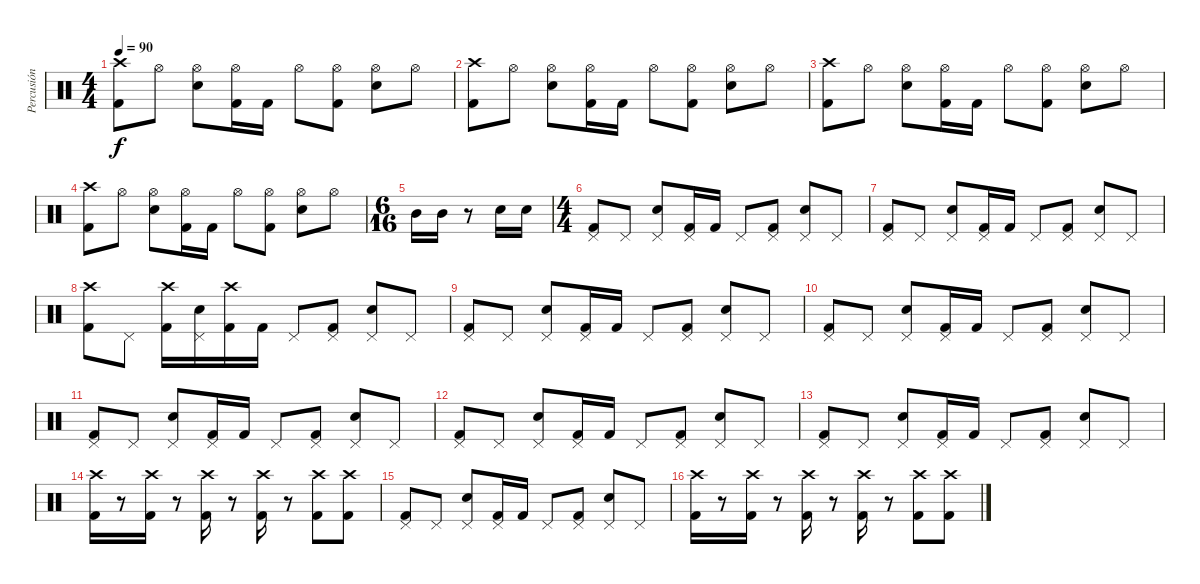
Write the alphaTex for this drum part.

\track ("Percusión" "Percusión") {instrument percussion}
\staff {score}
\articulation defaults
\ts (4 4)
\tempo 90
\clef neutral
\ks c
("Crash high (hit)" "Kick (hit) 2").8{dy f} "Hi-Hat (open)".8 ("Hi-Hat (open)" "Electric Snare (hit)").8 ("Hi-Hat (open)" "Kick (hit) 2").16 "Kick (hit) 2".16 "Hi-Hat (open)".8 ("Hi-Hat (open)" "Kick (hit) 2").8 ("Hi-Hat (open)" "Electric Snare (hit)").8 "Hi-Hat (open)".8 |
("Crash high (hit)" "Kick (hit) 2").8 "Hi-Hat (open)".8 ("Hi-Hat (open)" "Electric Snare (hit)").8 ("Hi-Hat (open)" "Kick (hit) 2").16 "Kick (hit) 2".16 "Hi-Hat (open)".8 ("Hi-Hat (open)" "Kick (hit) 2").8 ("Hi-Hat (open)" "Electric Snare (hit)").8 "Hi-Hat (open)".8 |
("Crash high (hit)" "Kick (hit) 2").8 "Hi-Hat (open)".8 ("Hi-Hat (open)" "Electric Snare (hit)").8 ("Hi-Hat (open)" "Kick (hit) 2").16 "Kick (hit) 2".16 "Hi-Hat (open)".8 ("Hi-Hat (open)" "Kick (hit) 2").8 ("Hi-Hat (open)" "Electric Snare (hit)").8 "Hi-Hat (open)".8 |
("Crash high (hit)" "Kick (hit) 2").8 "Hi-Hat (open)".8 ("Hi-Hat (open)" "Electric Snare (hit)").8 ("Hi-Hat (open)" "Kick (hit) 2").16 "Kick (hit) 2".16 "Hi-Hat (open)".8 ("Hi-Hat (open)" "Kick (hit) 2").8 ("Hi-Hat (open)" "Electric Snare (hit)").8 "Hi-Hat (open)".8 |
\ts (6 16)
"Mid Tom (hit)".16 "Mid Tom (hit)".16 r.8 "Electric Snare (hit)".16 "Electric Snare (hit)".16 |
\ts (4 4)
("Pedal Hi-Hat (hit)" "Kick (hit) 2").8 "Pedal Hi-Hat (hit)".8 ("Pedal Hi-Hat (hit)" "Electric Snare (hit)").8 ("Pedal Hi-Hat (hit)" "Kick (hit) 2").16 "Kick (hit) 2".16 "Pedal Hi-Hat (hit)".8 ("Pedal Hi-Hat (hit)" "Kick (hit) 2").8 ("Pedal Hi-Hat (hit)" "Electric Snare (hit)").8 "Pedal Hi-Hat (hit)".8 |
("Pedal Hi-Hat (hit)" "Kick (hit) 2").8 "Pedal Hi-Hat (hit)".8 ("Pedal Hi-Hat (hit)" "Electric Snare (hit)").8 ("Pedal Hi-Hat (hit)" "Kick (hit) 2").16 "Kick (hit) 2".16 "Pedal Hi-Hat (hit)".8 ("Pedal Hi-Hat (hit)" "Kick (hit) 2").8 ("Pedal Hi-Hat (hit)" "Electric Snare (hit)").8 "Pedal Hi-Hat (hit)".8 |
("Crash high (hit)" "Kick (hit) 2").8 "Pedal Hi-Hat (hit)".8 ("Crash high (hit)" "Kick (hit) 2").16 ("Pedal Hi-Hat (hit)" "Electric Snare (hit)").16 ("Crash high (hit)" "Kick (hit) 2").16 "Kick (hit) 2".16 "Pedal Hi-Hat (hit)".8 ("Pedal Hi-Hat (hit)" "Kick (hit) 2").8 ("Pedal Hi-Hat (hit)" "Electric Snare (hit)").8 "Pedal Hi-Hat (hit)".8 |
("Pedal Hi-Hat (hit)" "Kick (hit) 2").8 "Pedal Hi-Hat (hit)".8 ("Pedal Hi-Hat (hit)" "Electric Snare (hit)").8 ("Pedal Hi-Hat (hit)" "Kick (hit) 2").16 "Kick (hit) 2".16 "Pedal Hi-Hat (hit)".8 ("Pedal Hi-Hat (hit)" "Kick (hit) 2").8 ("Pedal Hi-Hat (hit)" "Electric Snare (hit)").8 "Pedal Hi-Hat (hit)".8 |
("Pedal Hi-Hat (hit)" "Kick (hit) 2").8 "Pedal Hi-Hat (hit)".8 ("Pedal Hi-Hat (hit)" "Electric Snare (hit)").8 ("Pedal Hi-Hat (hit)" "Kick (hit) 2").16 "Kick (hit) 2".16 "Pedal Hi-Hat (hit)".8 ("Pedal Hi-Hat (hit)" "Kick (hit) 2").8 ("Pedal Hi-Hat (hit)" "Electric Snare (hit)").8 "Pedal Hi-Hat (hit)".8 |
("Pedal Hi-Hat (hit)" "Kick (hit) 2").8 "Pedal Hi-Hat (hit)".8 ("Pedal Hi-Hat (hit)" "Electric Snare (hit)").8 ("Pedal Hi-Hat (hit)" "Kick (hit) 2").16 "Kick (hit) 2".16 "Pedal Hi-Hat (hit)".8 ("Pedal Hi-Hat (hit)" "Kick (hit) 2").8 ("Pedal Hi-Hat (hit)" "Electric Snare (hit)").8 "Pedal Hi-Hat (hit)".8 |
("Pedal Hi-Hat (hit)" "Kick (hit) 2").8 "Pedal Hi-Hat (hit)".8 ("Pedal Hi-Hat (hit)" "Electric Snare (hit)").8 ("Pedal Hi-Hat (hit)" "Kick (hit) 2").16 "Kick (hit) 2".16 "Pedal Hi-Hat (hit)".8 ("Pedal Hi-Hat (hit)" "Kick (hit) 2").8 ("Pedal Hi-Hat (hit)" "Electric Snare (hit)").8 "Pedal Hi-Hat (hit)".8 |
("Pedal Hi-Hat (hit)" "Kick (hit) 2").8 "Pedal Hi-Hat (hit)".8 ("Pedal Hi-Hat (hit)" "Electric Snare (hit)").8 ("Pedal Hi-Hat (hit)" "Kick (hit) 2").16 "Kick (hit) 2".16 "Pedal Hi-Hat (hit)".8 ("Pedal Hi-Hat (hit)" "Kick (hit) 2").8 ("Pedal Hi-Hat (hit)" "Electric Snare (hit)").8 "Pedal Hi-Hat (hit)".8 |
("Crash high (hit)" "Kick (hit) 2").16 r.8 ("Crash high (hit)" "Kick (hit) 2").16 r.8 ("Crash high (hit)" "Kick (hit) 2").16 r.8 ("Crash high (hit)" "Kick (hit) 2").16 r.8 ("Crash high (hit)" "Kick (hit) 2").8 ("Crash high (hit)" "Kick (hit) 2").8 |
("Pedal Hi-Hat (hit)" "Kick (hit) 2").8 "Pedal Hi-Hat (hit)".8 ("Pedal Hi-Hat (hit)" "Electric Snare (hit)").8 ("Pedal Hi-Hat (hit)" "Kick (hit) 2").16 "Kick (hit) 2".16 "Pedal Hi-Hat (hit)".8 ("Pedal Hi-Hat (hit)" "Kick (hit) 2").8 ("Pedal Hi-Hat (hit)" "Electric Snare (hit)").8 "Pedal Hi-Hat (hit)".8 |
("Crash high (hit)" "Kick (hit) 2").16 r.8 ("Crash high (hit)" "Kick (hit) 2").16 r.8 ("Crash high (hit)" "Kick (hit) 2").16 r.8 ("Crash high (hit)" "Kick (hit) 2").16 r.8 ("Crash high (hit)" "Kick (hit) 2").8 ("Crash high (hit)" "Kick (hit) 2").8
